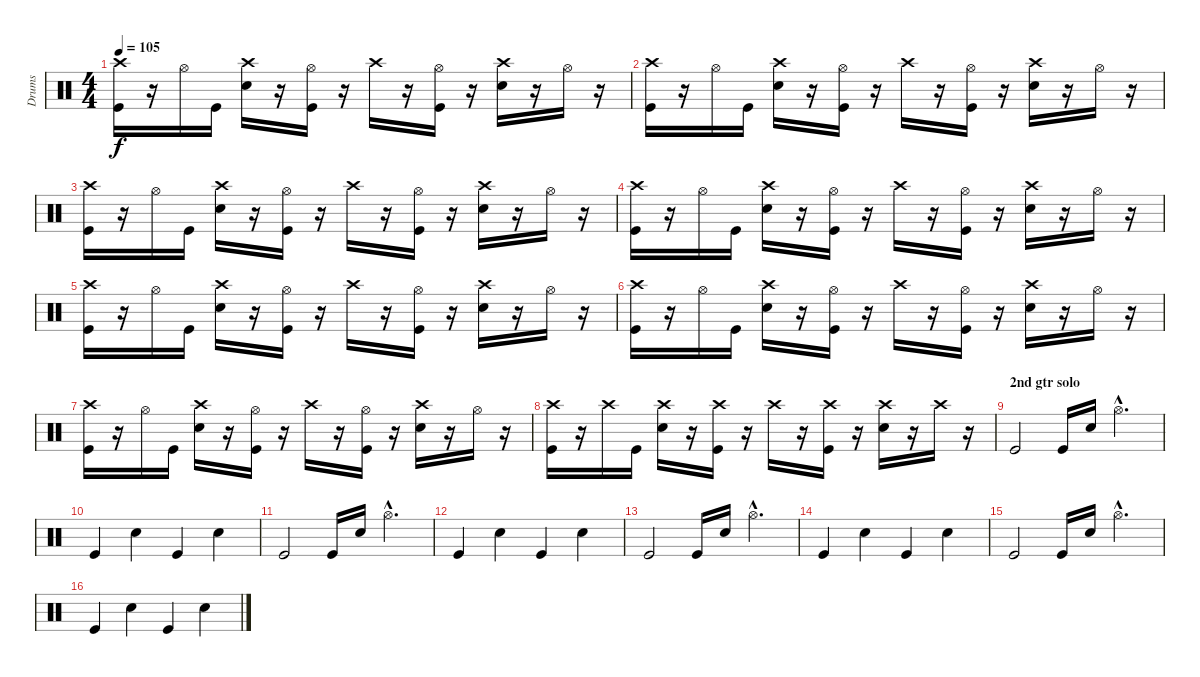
\track ("Drums" "Drums") {instrument percussion}
\staff {score}
\articulation defaults
\ts (4 4)
\tempo 105
\clef neutral
\ks c
("Crash high (hit)" "Kick (hit)").16{dy f} r.16 "Hi-Hat (open)".16 "Kick (hit)".16 ("Crash high (hit)" "Snare (hit) 2").16 r.16 ("Hi-Hat (open)" "Kick (hit)").16 r.16 "Crash high (hit)".16 r.16 ("Hi-Hat (open)" "Kick (hit)").16 r.16 ("Crash high (hit)" "Snare (hit) 2").16 r.16 "Hi-Hat (open)".16 r.16 |
("Crash high (hit)" "Kick (hit)").16 r.16 "Hi-Hat (open)".16 "Kick (hit)".16 ("Crash high (hit)" "Snare (hit) 2").16 r.16 ("Hi-Hat (open)" "Kick (hit)").16 r.16 "Crash high (hit)".16 r.16 ("Hi-Hat (open)" "Kick (hit)").16 r.16 ("Crash high (hit)" "Snare (hit) 2").16 r.16 "Hi-Hat (open)".16 r.16 |
("Crash high (hit)" "Kick (hit)").16 r.16 "Hi-Hat (open)".16 "Kick (hit)".16 ("Crash high (hit)" "Snare (hit) 2").16 r.16 ("Hi-Hat (open)" "Kick (hit)").16 r.16 "Crash high (hit)".16 r.16 ("Hi-Hat (open)" "Kick (hit)").16 r.16 ("Crash high (hit)" "Snare (hit) 2").16 r.16 "Hi-Hat (open)".16 r.16 |
("Crash high (hit)" "Kick (hit)").16 r.16 "Hi-Hat (open)".16 "Kick (hit)".16 ("Crash high (hit)" "Snare (hit) 2").16 r.16 ("Hi-Hat (open)" "Kick (hit)").16 r.16 "Crash high (hit)".16 r.16 ("Hi-Hat (open)" "Kick (hit)").16 r.16 ("Crash high (hit)" "Snare (hit) 2").16 r.16 "Hi-Hat (open)".16 r.16 |
("Crash high (hit)" "Kick (hit)").16 r.16 "Hi-Hat (open)".16 "Kick (hit)".16 ("Crash high (hit)" "Snare (hit) 2").16 r.16 ("Hi-Hat (open)" "Kick (hit)").16 r.16 "Crash high (hit)".16 r.16 ("Hi-Hat (open)" "Kick (hit)").16 r.16 ("Crash high (hit)" "Snare (hit) 2").16 r.16 "Hi-Hat (open)".16 r.16 |
("Crash high (hit)" "Kick (hit)").16 r.16 "Hi-Hat (open)".16 "Kick (hit)".16 ("Crash high (hit)" "Snare (hit) 2").16 r.16 ("Hi-Hat (open)" "Kick (hit)").16 r.16 "Crash high (hit)".16 r.16 ("Hi-Hat (open)" "Kick (hit)").16 r.16 ("Crash high (hit)" "Snare (hit) 2").16 r.16 "Hi-Hat (open)".16 r.16 |
("Crash high (hit)" "Kick (hit)").16 r.16 "Hi-Hat (open)".16 "Kick (hit)".16 ("Crash high (hit)" "Snare (hit) 2").16 r.16 ("Hi-Hat (open)" "Kick (hit)").16 r.16 "Crash high (hit)".16 r.16 ("Hi-Hat (open)" "Kick (hit)").16 r.16 ("Crash high (hit)" "Snare (hit) 2").16 r.16 "Hi-Hat (open)".16 r.16 |
("Crash high (hit)" "Kick (hit)").16 r.16 "Crash high (hit)".16 "Kick (hit)".16 ("Crash high (hit)" "Snare (hit) 2").16 r.16 ("Crash high (hit)" "Kick (hit)").16 r.16 "Crash high (hit)".16 r.16 ("Crash high (hit)" "Kick (hit)").16 r.16 ("Crash high (hit)" "Snare (hit) 2").16 r.16 "Crash high (hit)".16 r.16 |
\section ("" "2nd gtr solo")
"Kick (hit)".2 "Kick (hit)".16 "Snare (hit) 2".16 "Hi-Hat (open)"{hac}.4{d} |
"Kick (hit)".4 "Snare (hit) 2".4 "Kick (hit)".4 "Snare (hit) 2".4 |
"Kick (hit)".2 "Kick (hit)".16 "Snare (hit) 2".16 "Hi-Hat (open)"{hac}.4{d} |
"Kick (hit)".4 "Snare (hit) 2".4 "Kick (hit)".4 "Snare (hit) 2".4 |
"Kick (hit)".2 "Kick (hit)".16 "Snare (hit) 2".16 "Hi-Hat (open)"{hac}.4{d} |
"Kick (hit)".4 "Snare (hit) 2".4 "Kick (hit)".4 "Snare (hit) 2".4 |
"Kick (hit)".2 "Kick (hit)".16 "Snare (hit) 2".16 "Hi-Hat (open)"{hac}.4{d} |
"Kick (hit)".4 "Snare (hit) 2".4 "Kick (hit)".4 "Snare (hit) 2".4
